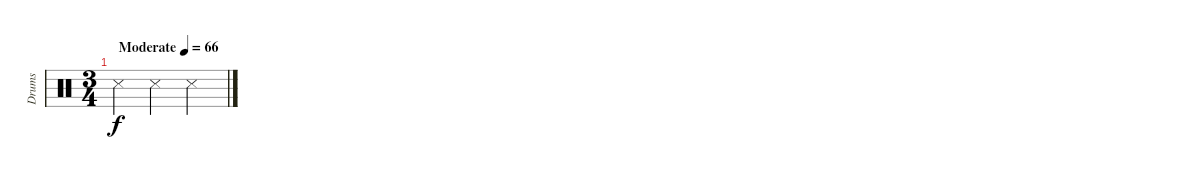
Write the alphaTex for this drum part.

\track ("Drums" "Drums") {instrument percussion}
\staff {score}
\articulation defaults
\ts (3 4)
\tempo (66 "Moderate")
\clef neutral
\ks c "Snare (side stick) 3".4{dy f} "Snare (side stick) 3".4 "Snare (side stick) 3".4
